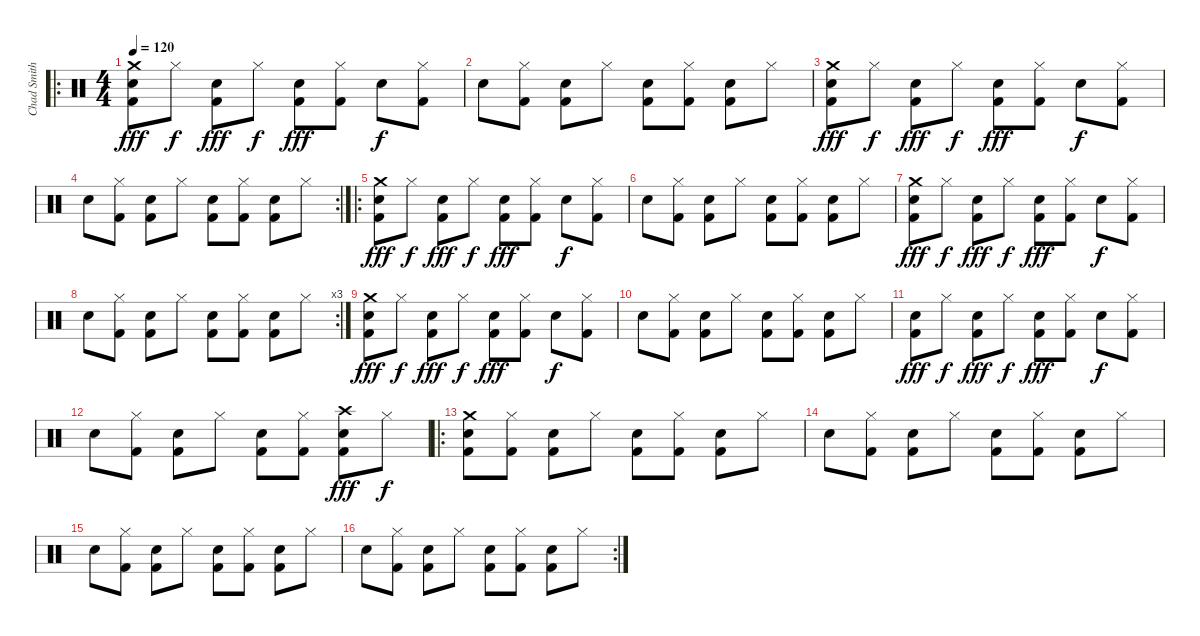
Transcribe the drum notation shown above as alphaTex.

\track ("Chad Smith" "Chad Smith") {instrument percussion}
\staff {score}
\articulation defaults
\ro
\ts (4 4)
\tempo 120
\clef neutral
\ks c
("Electric Snare (hit)" "Crash medium (hit)" "Kick (hit) 2").8{dy fff} "Hi-Hat (closed)".8{dy f} ("Electric Snare (hit)" "Kick (hit) 2").8{dy fff} "Hi-Hat (closed)".8{dy f} ("Electric Snare (hit)" "Kick (hit) 2").8{dy fff} ("Hi-Hat (closed)" "Kick (hit) 2").8 "Electric Snare (hit)".8{dy f} ("Hi-Hat (closed)" "Kick (hit) 2").8 |
"Electric Snare (hit)".8 ("Hi-Hat (closed)" "Kick (hit) 2").8 ("Electric Snare (hit)" "Kick (hit) 2").8 "Hi-Hat (closed)".8 ("Electric Snare (hit)" "Kick (hit) 2").8 ("Hi-Hat (closed)" "Kick (hit) 2").8 ("Electric Snare (hit)" "Kick (hit) 2").8 "Hi-Hat (closed)".8 |
("Electric Snare (hit)" "Crash medium (hit)" "Kick (hit) 2").8{dy fff} "Hi-Hat (closed)".8{dy f} ("Electric Snare (hit)" "Kick (hit) 2").8{dy fff} "Hi-Hat (closed)".8{dy f} ("Electric Snare (hit)" "Kick (hit) 2").8{dy fff} ("Hi-Hat (closed)" "Kick (hit) 2").8 "Electric Snare (hit)".8{dy f} ("Hi-Hat (closed)" "Kick (hit) 2").8 |
\rc 2 "Electric Snare (hit)".8
("Hi-Hat (closed)" "Kick (hit) 2").8 ("Electric Snare (hit)" "Kick (hit) 2").8 "Hi-Hat (closed)".8 ("Electric Snare (hit)" "Kick (hit) 2").8 ("Hi-Hat (closed)" "Kick (hit) 2").8 ("Electric Snare (hit)" "Kick (hit) 2").8 "Hi-Hat (closed)".8 |
\ro
("Electric Snare (hit)" "Crash medium (hit)" "Kick (hit) 2").8{dy fff} "Hi-Hat (closed)".8{dy f} ("Electric Snare (hit)" "Kick (hit) 2").8{dy fff} "Hi-Hat (closed)".8{dy f} ("Electric Snare (hit)" "Kick (hit) 2").8{dy fff} ("Hi-Hat (closed)" "Kick (hit) 2").8 "Electric Snare (hit)".8{dy f} ("Hi-Hat (closed)" "Kick (hit) 2").8 |
"Electric Snare (hit)".8 ("Hi-Hat (closed)" "Kick (hit) 2").8 ("Electric Snare (hit)" "Kick (hit) 2").8 "Hi-Hat (closed)".8 ("Electric Snare (hit)" "Kick (hit) 2").8 ("Hi-Hat (closed)" "Kick (hit) 2").8 ("Electric Snare (hit)" "Kick (hit) 2").8 "Hi-Hat (closed)".8 |
("Electric Snare (hit)" "Crash medium (hit)" "Kick (hit) 2").8{dy fff} "Hi-Hat (closed)".8{dy f} ("Electric Snare (hit)" "Kick (hit) 2").8{dy fff} "Hi-Hat (closed)".8{dy f} ("Electric Snare (hit)" "Kick (hit) 2").8{dy fff} ("Hi-Hat (closed)" "Kick (hit) 2").8 "Electric Snare (hit)".8{dy f} ("Hi-Hat (closed)" "Kick (hit) 2").8 |
\rc 3 "Electric Snare (hit)".8
("Hi-Hat (closed)" "Kick (hit) 2").8 ("Electric Snare (hit)" "Kick (hit) 2").8 "Hi-Hat (closed)".8 ("Electric Snare (hit)" "Kick (hit) 2").8 ("Hi-Hat (closed)" "Kick (hit) 2").8 ("Electric Snare (hit)" "Kick (hit) 2").8 "Hi-Hat (closed)".8 |
("Electric Snare (hit)" "Crash medium (hit)" "Kick (hit) 2").8{dy fff} "Hi-Hat (closed)".8{dy f} ("Electric Snare (hit)" "Kick (hit) 2").8{dy fff} "Hi-Hat (closed)".8{dy f} ("Electric Snare (hit)" "Kick (hit) 2").8{dy fff} ("Hi-Hat (closed)" "Kick (hit) 2").8 "Electric Snare (hit)".8{dy f} ("Hi-Hat (closed)" "Kick (hit) 2").8 |
"Electric Snare (hit)".8 ("Hi-Hat (closed)" "Kick (hit) 2").8 ("Electric Snare (hit)" "Kick (hit) 2").8 "Hi-Hat (closed)".8 ("Electric Snare (hit)" "Kick (hit) 2").8 ("Hi-Hat (closed)" "Kick (hit) 2").8 ("Electric Snare (hit)" "Kick (hit) 2").8 "Hi-Hat (closed)".8 |
("Electric Snare (hit)" "Kick (hit) 2").8{dy fff} "Hi-Hat (closed)".8{dy f} ("Electric Snare (hit)" "Kick (hit) 2").8{dy fff} "Hi-Hat (closed)".8{dy f} ("Electric Snare (hit)" "Kick (hit) 2").8{dy fff} ("Hi-Hat (closed)" "Kick (hit) 2").8 "Electric Snare (hit)".8{dy f} ("Hi-Hat (closed)" "Kick (hit) 2").8 |
"Electric Snare (hit)".8 ("Hi-Hat (closed)" "Kick (hit) 2").8 ("Electric Snare (hit)" "Kick (hit) 2").8 "Hi-Hat (closed)".8 ("Electric Snare (hit)" "Kick (hit) 2").8 ("Hi-Hat (closed)" "Kick (hit) 2").8 ("Electric Snare (hit)" "Kick (hit) 2" "Crash high (hit)").8{dy fff} "Hi-Hat (closed)".8{dy f} |
\ro
("Electric Snare (hit)" "Crash medium (hit)" "Kick (hit) 2").8 ("Hi-Hat (closed)" "Kick (hit) 2").8 ("Electric Snare (hit)" "Kick (hit) 2").8 "Hi-Hat (closed)".8 ("Electric Snare (hit)" "Kick (hit) 2").8 ("Hi-Hat (closed)" "Kick (hit) 2").8 ("Electric Snare (hit)" "Kick (hit) 2").8 "Hi-Hat (closed)".8 |
"Electric Snare (hit)".8 ("Hi-Hat (closed)" "Kick (hit) 2").8 ("Electric Snare (hit)" "Kick (hit) 2").8 "Hi-Hat (closed)".8 ("Electric Snare (hit)" "Kick (hit) 2").8 ("Hi-Hat (closed)" "Kick (hit) 2").8 ("Electric Snare (hit)" "Kick (hit) 2").8 "Hi-Hat (closed)".8 |
"Electric Snare (hit)".8 ("Hi-Hat (closed)" "Kick (hit) 2").8 ("Electric Snare (hit)" "Kick (hit) 2").8 "Hi-Hat (closed)".8 ("Electric Snare (hit)" "Kick (hit) 2").8 ("Hi-Hat (closed)" "Kick (hit) 2").8 ("Electric Snare (hit)" "Kick (hit) 2").8 "Hi-Hat (closed)".8 |
\rc 2 "Electric Snare (hit)".8
("Hi-Hat (closed)" "Kick (hit) 2").8 ("Electric Snare (hit)" "Kick (hit) 2").8 "Hi-Hat (closed)".8 ("Electric Snare (hit)" "Kick (hit) 2").8 ("Hi-Hat (closed)" "Kick (hit) 2").8 ("Electric Snare (hit)" "Kick (hit) 2").8 "Hi-Hat (closed)".8
